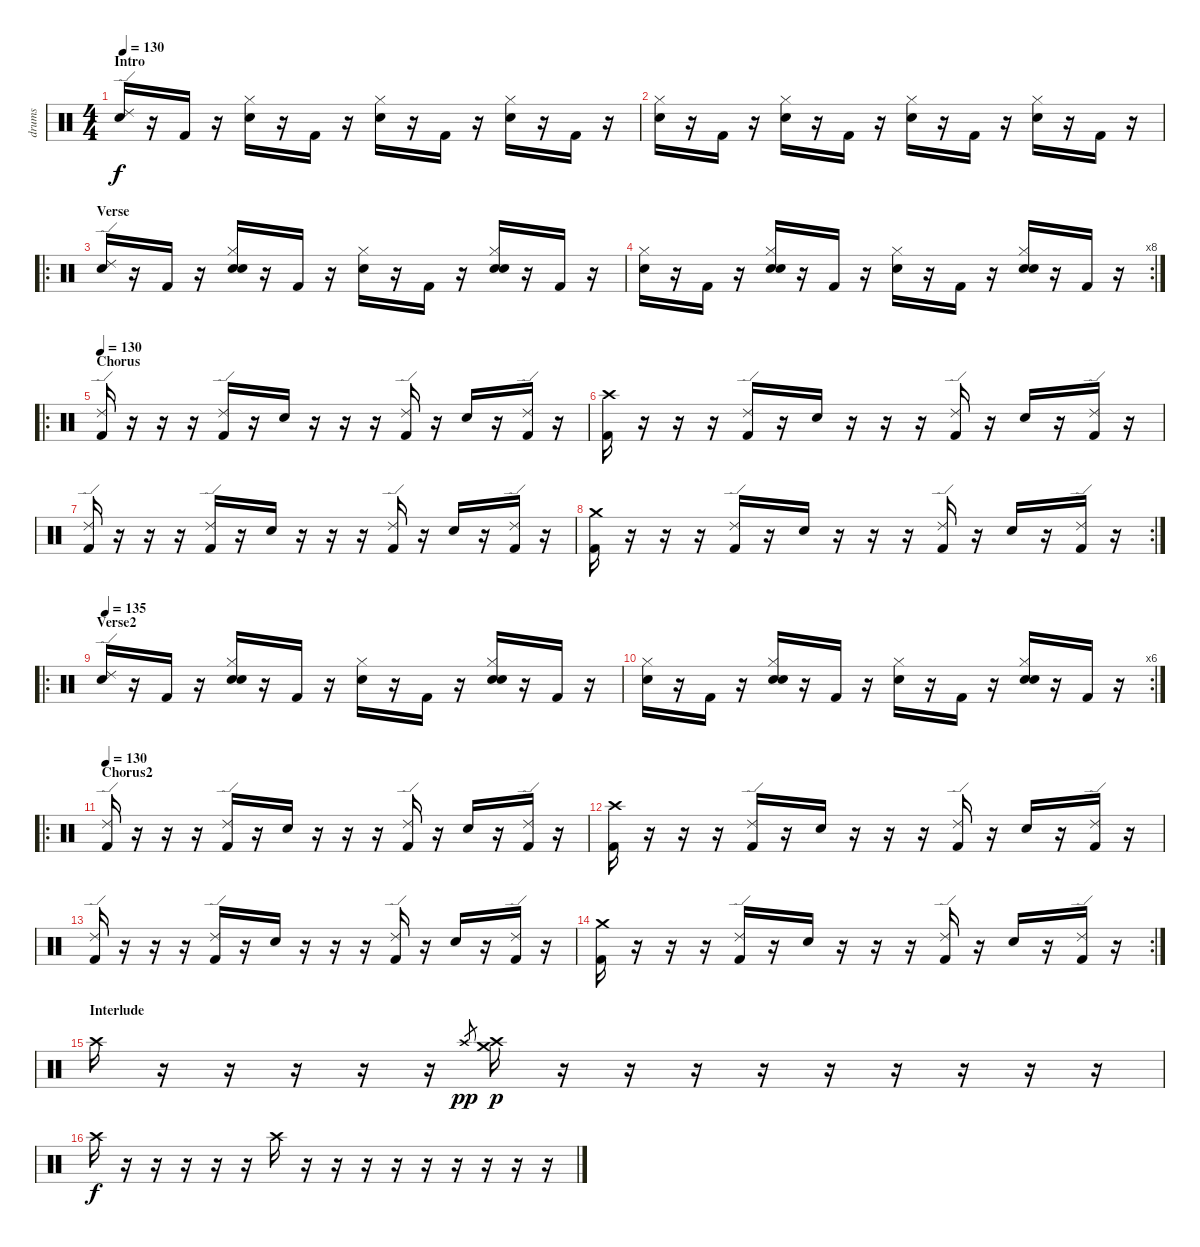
\track ("drums" "drums") {instrument percussion}
\staff {score}
\articulation defaults
\ts (4 4)
\section ("" "Intro")
\tempo 130
\tempo 135
\tempo 130
\clef neutral
\ks c
("Ride (edge) 2" "Electric Snare (hit)").16{dy f} r.16 "Kick (hit) 2".16 r.16 ("Electric Snare (hit)" "Hi-Hat (closed)").16 r.16 "Kick (hit) 2".16 r.16 ("Electric Snare (hit)" "Hi-Hat (closed)").16 r.16 "Kick (hit) 2".16 r.16 ("Electric Snare (hit)" "Hi-Hat (closed)").16 r.16 "Kick (hit) 2".16 r.16 |
("Electric Snare (hit)" "Hi-Hat (closed)").16 r.16 "Kick (hit) 2".16 r.16 ("Electric Snare (hit)" "Hi-Hat (closed)").16 r.16 "Kick (hit) 2".16 r.16 ("Electric Snare (hit)" "Hi-Hat (closed)").16 r.16 "Kick (hit) 2".16 r.16 ("Electric Snare (hit)" "Hi-Hat (closed)").16 r.16 "Kick (hit) 2".16 r.16 |
\ro
\section ("" "Verse")
("Ride (edge) 2" "Electric Snare (hit)").16 r.16 "Kick (hit) 2".16 r.16 ("Electric Snare (hit)" "Hi-Hat (closed)" "Hand Clap (hit)").16 r.16 "Kick (hit) 2".16 r.16 ("Electric Snare (hit)" "Hi-Hat (closed)").16 r.16 "Kick (hit) 2".16 r.16 ("Electric Snare (hit)" "Hi-Hat (closed)" "Hand Clap (hit)").16 r.16 "Kick (hit) 2".16 r.16 |
\rc 8
("Electric Snare (hit)" "Hi-Hat (closed)").16 r.16 "Kick (hit) 2".16 r.16 ("Electric Snare (hit)" "Hi-Hat (closed)" "Hand Clap (hit)").16 r.16 "Kick (hit) 2".16 r.16 ("Electric Snare (hit)" "Hi-Hat (closed)").16 r.16 "Kick (hit) 2".16 r.16 ("Electric Snare (hit)" "Hi-Hat (closed)" "Hand Clap (hit)").16 r.16 "Kick (hit) 2".16 r.16 |
\ro
\section ("" "Chorus")
\tempo 130
("Kick (hit) 2" "Ride (edge) 2").16 r.16 r.16 r.16 ("Kick (hit) 2" "Ride (edge) 2").16 r.16 "Electric Snare (hit)".16 r.16 r.16 r.16 ("Kick (hit) 2" "Ride (edge) 2").16 r.16 "Electric Snare (hit)".16 r.16 ("Kick (hit) 2" "Ride (edge) 2").16 r.16 |
("Kick (hit) 2" "Crash high (hit)").16 r.16 r.16 r.16 ("Kick (hit) 2" "Ride (edge) 2").16 r.16 "Electric Snare (hit)".16 r.16 r.16 r.16 ("Kick (hit) 2" "Ride (edge) 2").16 r.16 "Electric Snare (hit)".16 r.16 ("Kick (hit) 2" "Ride (edge) 2").16 r.16 |
("Kick (hit) 2" "Ride (edge) 2").16 r.16 r.16 r.16 ("Kick (hit) 2" "Ride (edge) 2").16 r.16 "Electric Snare (hit)".16 r.16 r.16 r.16 ("Kick (hit) 2" "Ride (edge) 2").16 r.16 "Electric Snare (hit)".16 r.16 ("Kick (hit) 2" "Ride (edge) 2").16 r.16 |
\rc 2
("Kick (hit) 2" "Crash medium (hit)").16 r.16 r.16 r.16 ("Kick (hit) 2" "Ride (edge) 2").16 r.16 "Electric Snare (hit)".16 r.16 r.16 r.16 ("Kick (hit) 2" "Ride (edge) 2").16 r.16 "Electric Snare (hit)".16 r.16 ("Kick (hit) 2" "Ride (edge) 2").16 r.16 |
\ro
\section ("" "Verse2")
\tempo 135
("Ride (edge) 2" "Electric Snare (hit)").16 r.16 "Kick (hit) 2".16 r.16 ("Electric Snare (hit)" "Hi-Hat (closed)" "Hand Clap (hit)").16 r.16 "Kick (hit) 2".16 r.16 ("Electric Snare (hit)" "Hi-Hat (closed)").16 r.16 "Kick (hit) 2".16 r.16 ("Electric Snare (hit)" "Hi-Hat (closed)" "Hand Clap (hit)").16 r.16 "Kick (hit) 2".16 r.16 |
\rc 6
("Electric Snare (hit)" "Hi-Hat (closed)").16 r.16 "Kick (hit) 2".16 r.16 ("Electric Snare (hit)" "Hi-Hat (closed)" "Hand Clap (hit)").16 r.16 "Kick (hit) 2".16 r.16 ("Electric Snare (hit)" "Hi-Hat (closed)").16 r.16 "Kick (hit) 2".16 r.16 ("Electric Snare (hit)" "Hi-Hat (closed)" "Hand Clap (hit)").16 r.16 "Kick (hit) 2".16 r.16 |
\ro
\section ("" "Chorus2")
\tempo 130
("Kick (hit) 2" "Ride (edge) 2").16 r.16 r.16 r.16 ("Kick (hit) 2" "Ride (edge) 2").16 r.16 "Electric Snare (hit)".16 r.16 r.16 r.16 ("Kick (hit) 2" "Ride (edge) 2").16 r.16 "Electric Snare (hit)".16 r.16 ("Kick (hit) 2" "Ride (edge) 2").16 r.16 |
("Kick (hit) 2" "Crash high (hit)").16 r.16 r.16 r.16 ("Kick (hit) 2" "Ride (edge) 2").16 r.16 "Electric Snare (hit)".16 r.16 r.16 r.16 ("Kick (hit) 2" "Ride (edge) 2").16 r.16 "Electric Snare (hit)".16 r.16 ("Kick (hit) 2" "Ride (edge) 2").16 r.16 |
("Kick (hit) 2" "Ride (edge) 2").16 r.16 r.16 r.16 ("Kick (hit) 2" "Ride (edge) 2").16 r.16 "Electric Snare (hit)".16 r.16 r.16 r.16 ("Kick (hit) 2" "Ride (edge) 2").16 r.16 "Electric Snare (hit)".16 r.16 ("Kick (hit) 2" "Ride (edge) 2").16 r.16 |
\rc 2
("Kick (hit) 2" "Crash medium (hit)").16 r.16 r.16 r.16 ("Kick (hit) 2" "Ride (edge) 2").16 r.16 "Electric Snare (hit)".16 r.16 r.16 r.16 ("Kick (hit) 2" "Ride (edge) 2").16 r.16 "Electric Snare (hit)".16 r.16 ("Kick (hit) 2" "Ride (edge) 2").16 r.16 |
\section ("" "Interlude")
"Crash high (hit)".16 r.16 r.16 r.16 r.16 r.16 "Crash high (hit)".8{gr dy pp} ("Crash high (hit)" "Crash medium (hit)").16{dy p} r.16 r.16 r.16 r.16 r.16 r.16 r.16 r.16 r.16 |
"Crash high (hit)".16{dy f} r.16 r.16 r.16 r.16 r.16 "Crash high (hit)".16 r.16 r.16 r.16 r.16 r.16 r.16 r.16 r.16 r.16
